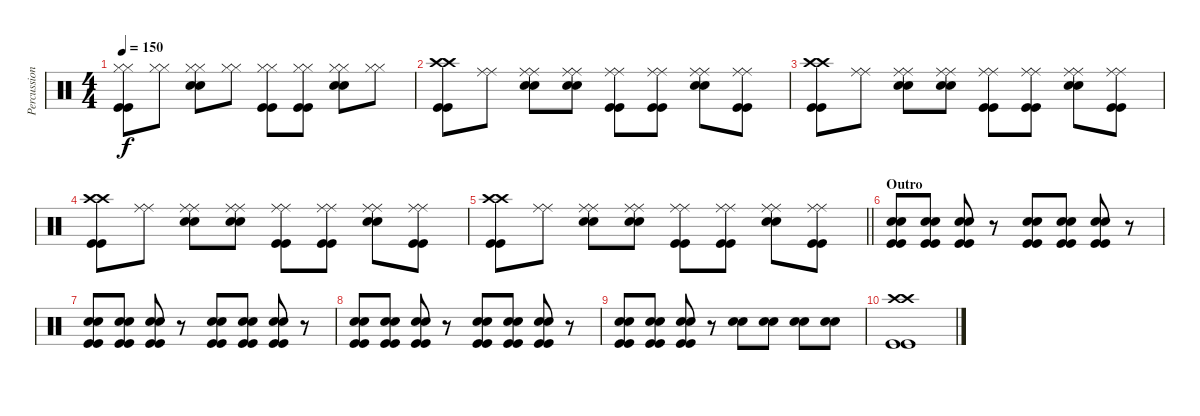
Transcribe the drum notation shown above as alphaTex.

\track ("Percussion" "Percussion") {instrument percussion bank 129}
\staff
\articulation defaults
\ts (4 4)
\tempo 150
\clef neutral
\ks c
("Hi-Hat (closed)" "Hi-Hat (closed)" "Kick (hit)" "Kick (hit)").8{dy f} ("Hi-Hat (closed)" "Hi-Hat (closed)").8 ("Hi-Hat (closed)" "Hi-Hat (closed)" "Snare (hit) 2" "Snare (hit) 2").8 ("Hi-Hat (closed)" "Hi-Hat (closed)").8 ("Hi-Hat (closed)" "Hi-Hat (closed)" "Kick (hit)" "Kick (hit)").8 ("Hi-Hat (closed)" "Hi-Hat (closed)" "Kick (hit)" "Kick (hit)").8 ("Hi-Hat (closed)" "Hi-Hat (closed)" "Snare (hit) 2" "Snare (hit) 2").8 ("Hi-Hat (closed)" "Hi-Hat (closed)").8 |
("Crash high (hit)" "Crash high (hit)" "Kick (hit)" "Kick (hit)").8 ("Ride (middle)" "Ride (middle)").8 ("Ride (middle)" "Ride (middle)" "Snare (hit) 2" "Snare (hit) 2").8 ("Ride (middle)" "Ride (middle)" "Snare (hit) 2" "Snare (hit) 2").8 ("Ride (middle)" "Ride (middle)" "Kick (hit)" "Kick (hit)").8 ("Ride (middle)" "Ride (middle)" "Kick (hit)" "Kick (hit)").8 ("Ride (middle)" "Ride (middle)" "Snare (hit) 2" "Snare (hit) 2").8 ("Ride (middle)" "Ride (middle)" "Kick (hit)" "Kick (hit)").8 |
("Crash high (hit)" "Crash high (hit)" "Kick (hit)" "Kick (hit)").8 ("Ride (middle)" "Ride (middle)").8 ("Ride (middle)" "Ride (middle)" "Snare (hit) 2" "Snare (hit) 2").8 ("Ride (middle)" "Ride (middle)" "Snare (hit) 2" "Snare (hit) 2").8 ("Ride (middle)" "Ride (middle)" "Kick (hit)" "Kick (hit)").8 ("Ride (middle)" "Ride (middle)" "Kick (hit)" "Kick (hit)").8 ("Ride (middle)" "Ride (middle)" "Snare (hit) 2" "Snare (hit) 2").8 ("Ride (middle)" "Ride (middle)" "Kick (hit)" "Kick (hit)").8 |
("Crash high (hit)" "Crash high (hit)" "Kick (hit)" "Kick (hit)").8 ("Ride (middle)" "Ride (middle)").8 ("Ride (middle)" "Ride (middle)" "Snare (hit) 2" "Snare (hit) 2").8 ("Ride (middle)" "Ride (middle)" "Snare (hit) 2" "Snare (hit) 2").8 ("Ride (middle)" "Ride (middle)" "Kick (hit)" "Kick (hit)").8 ("Ride (middle)" "Ride (middle)" "Kick (hit)" "Kick (hit)").8 ("Ride (middle)" "Ride (middle)" "Snare (hit) 2" "Snare (hit) 2").8 ("Ride (middle)" "Ride (middle)" "Kick (hit)" "Kick (hit)").8 |
\barLineRight lightlight
("Crash high (hit)" "Crash high (hit)" "Kick (hit)" "Kick (hit)").8 ("Ride (middle)" "Ride (middle)").8 ("Ride (middle)" "Ride (middle)" "Snare (hit) 2" "Snare (hit) 2").8 ("Ride (middle)" "Ride (middle)" "Snare (hit) 2" "Snare (hit) 2").8 ("Ride (middle)" "Ride (middle)" "Kick (hit)" "Kick (hit)").8 ("Ride (middle)" "Ride (middle)" "Kick (hit)" "Kick (hit)").8 ("Ride (middle)" "Ride (middle)" "Snare (hit) 2" "Snare (hit) 2").8 ("Ride (middle)" "Ride (middle)" "Kick (hit)" "Kick (hit)").8 |
\section ("" "Outro")
("Kick (hit)" "Snare (hit) 2" "Snare (hit) 2" "Kick (hit)").8 ("Kick (hit)" "Snare (hit) 2" "Snare (hit) 2" "Kick (hit)").8 ("Kick (hit)" "Snare (hit) 2" "Snare (hit) 2" "Kick (hit)").8 r.8 ("Kick (hit)" "Snare (hit) 2" "Snare (hit) 2" "Kick (hit)").8 ("Kick (hit)" "Snare (hit) 2" "Snare (hit) 2" "Kick (hit)").8 ("Kick (hit)" "Snare (hit) 2" "Snare (hit) 2" "Kick (hit)").8 r.8 |
("Kick (hit)" "Snare (hit) 2" "Snare (hit) 2" "Kick (hit)").8 ("Kick (hit)" "Snare (hit) 2" "Snare (hit) 2" "Kick (hit)").8 ("Kick (hit)" "Snare (hit) 2" "Snare (hit) 2" "Kick (hit)").8 r.8 ("Kick (hit)" "Snare (hit) 2" "Snare (hit) 2" "Kick (hit)").8 ("Kick (hit)" "Snare (hit) 2" "Snare (hit) 2" "Kick (hit)").8 ("Kick (hit)" "Snare (hit) 2" "Snare (hit) 2" "Kick (hit)").8 r.8 |
("Kick (hit)" "Snare (hit) 2" "Snare (hit) 2" "Kick (hit)").8 ("Kick (hit)" "Snare (hit) 2" "Snare (hit) 2" "Kick (hit)").8 ("Kick (hit)" "Snare (hit) 2" "Snare (hit) 2" "Kick (hit)").8 r.8 ("Kick (hit)" "Snare (hit) 2" "Snare (hit) 2" "Kick (hit)").8 ("Kick (hit)" "Snare (hit) 2" "Snare (hit) 2" "Kick (hit)").8 ("Kick (hit)" "Snare (hit) 2" "Snare (hit) 2" "Kick (hit)").8 r.8 |
("Kick (hit)" "Snare (hit) 2" "Snare (hit) 2" "Kick (hit)").8 ("Kick (hit)" "Snare (hit) 2" "Snare (hit) 2" "Kick (hit)").8 ("Kick (hit)" "Snare (hit) 2" "Snare (hit) 2" "Kick (hit)").8 r.8 ("Snare (hit) 2" "Snare (hit) 2").8 ("Snare (hit) 2" "Snare (hit) 2").8 ("Snare (hit) 2" "Snare (hit) 2").8 ("Snare (hit) 2" "Snare (hit) 2").8 |
("Kick (hit)" "Crash high (hit)" "Kick (hit)" "Crash high (hit)").1
